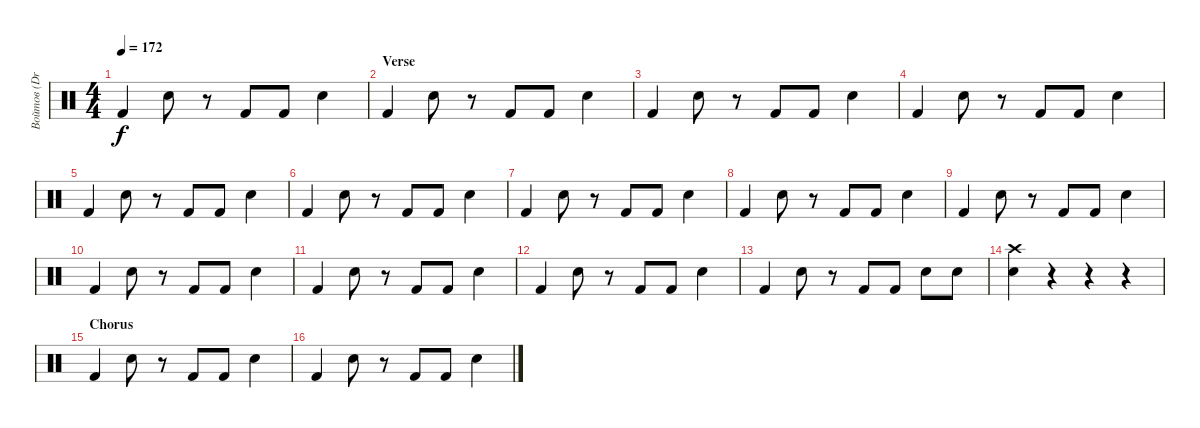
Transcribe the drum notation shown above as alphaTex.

\track ("Войтов (Drums)" "Войтов (Dr") {instrument percussion}
\staff {score}
\articulation defaults
\ts (4 4)
\tempo 172
\clef neutral
\ks c "Kick (hit) 2".4{dy f} "Electric Snare (hit)".8
r.8 "Kick (hit) 2".8 "Kick (hit) 2".8 "Electric Snare (hit)".4 |
\section ("" "Verse")
"Kick (hit) 2".4 "Electric Snare (hit)".8 r.8 "Kick (hit) 2".8 "Kick (hit) 2".8 "Electric Snare (hit)".4 |
"Kick (hit) 2".4 "Electric Snare (hit)".8 r.8 "Kick (hit) 2".8 "Kick (hit) 2".8 "Electric Snare (hit)".4 |
"Kick (hit) 2".4 "Electric Snare (hit)".8 r.8 "Kick (hit) 2".8 "Kick (hit) 2".8 "Electric Snare (hit)".4 |
"Kick (hit) 2".4 "Electric Snare (hit)".8 r.8 "Kick (hit) 2".8 "Kick (hit) 2".8 "Electric Snare (hit)".4 |
"Kick (hit) 2".4 "Electric Snare (hit)".8 r.8 "Kick (hit) 2".8 "Kick (hit) 2".8 "Electric Snare (hit)".4 |
"Kick (hit) 2".4 "Electric Snare (hit)".8 r.8 "Kick (hit) 2".8 "Kick (hit) 2".8 "Electric Snare (hit)".4 |
"Kick (hit) 2".4 "Electric Snare (hit)".8 r.8 "Kick (hit) 2".8 "Kick (hit) 2".8 "Electric Snare (hit)".4 |
"Kick (hit) 2".4 "Electric Snare (hit)".8 r.8 "Kick (hit) 2".8 "Kick (hit) 2".8 "Electric Snare (hit)".4 |
"Kick (hit) 2".4 "Electric Snare (hit)".8 r.8 "Kick (hit) 2".8 "Kick (hit) 2".8 "Electric Snare (hit)".4 |
"Kick (hit) 2".4 "Electric Snare (hit)".8 r.8 "Kick (hit) 2".8 "Kick (hit) 2".8 "Electric Snare (hit)".4 |
"Kick (hit) 2".4 "Electric Snare (hit)".8 r.8 "Kick (hit) 2".8 "Kick (hit) 2".8 "Electric Snare (hit)".4 |
"Kick (hit) 2".4 "Electric Snare (hit)".8 r.8 "Kick (hit) 2".8 "Kick (hit) 2".8 "Electric Snare (hit)".8 "Electric Snare (hit)".8 |
("Crash high (hit)" "Electric Snare (hit)").4 r.4 r.4 r.4 |
\section ("" "Chorus")
"Kick (hit) 2".4 "Electric Snare (hit)".8 r.8 "Kick (hit) 2".8 "Kick (hit) 2".8 "Electric Snare (hit)".4 |
"Kick (hit) 2".4 "Electric Snare (hit)".8 r.8 "Kick (hit) 2".8 "Kick (hit) 2".8 "Electric Snare (hit)".4
